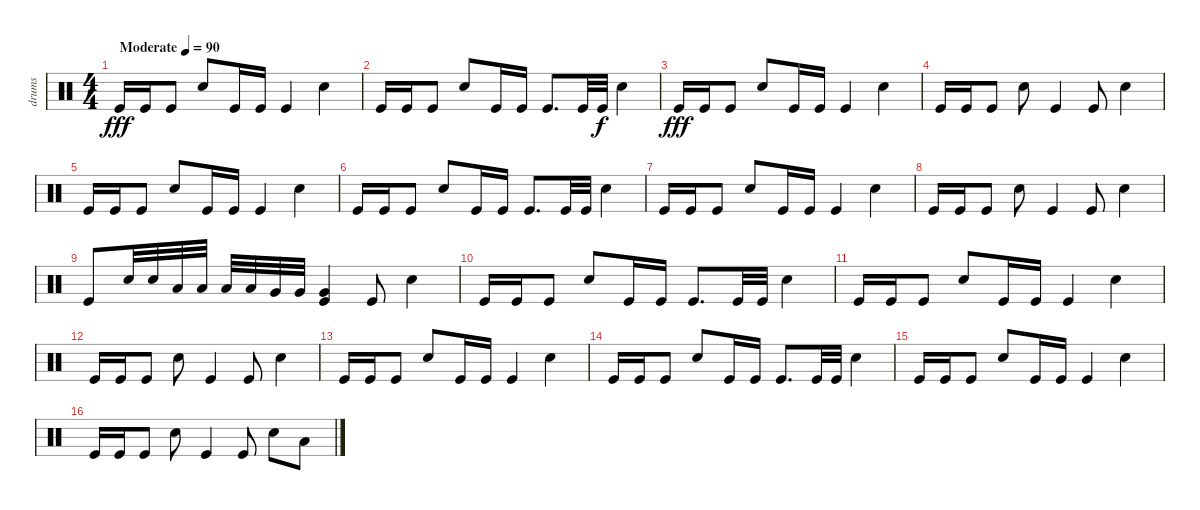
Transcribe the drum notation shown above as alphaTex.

\track ("drums" "drums") {instrument percussion}
\staff {score}
\articulation defaults
\ts (4 4)
\tempo (90 "Moderate")
\clef neutral
\ks c "Kick (hit)".16{dy fff} "Kick (hit)".16 "Kick (hit)".8 "Electric Snare (hit)".8 "Kick (hit)".16 "Kick (hit)".16 "Kick (hit)".4 "Electric Snare (hit)".4
|
"Kick (hit)".16 "Kick (hit)".16 "Kick (hit)".8 "Electric Snare (hit)".8 "Kick (hit)".16 "Kick (hit)".16 "Kick (hit)".8{d} "Kick (hit)".32 "Kick (hit)".32{dy f} "Electric Snare (hit)".4 |
"Kick (hit)".16{dy fff} "Kick (hit)".16 "Kick (hit)".8 "Electric Snare (hit)".8 "Kick (hit)".16 "Kick (hit)".16 "Kick (hit)".4 "Electric Snare (hit)".4 |
"Kick (hit)".16 "Kick (hit)".16 "Kick (hit)".8 "Electric Snare (hit)".8 "Kick (hit)".4 "Kick (hit)".8 "Electric Snare (hit)".4 |
"Kick (hit)".16 "Kick (hit)".16 "Kick (hit)".8 "Electric Snare (hit)".8 "Kick (hit)".16 "Kick (hit)".16 "Kick (hit)".4 "Electric Snare (hit)".4 |
"Kick (hit)".16 "Kick (hit)".16 "Kick (hit)".8 "Electric Snare (hit)".8 "Kick (hit)".16 "Kick (hit)".16 "Kick (hit)".8{d} "Kick (hit)".32 "Kick (hit)".32 "Electric Snare (hit)".4 |
"Kick (hit)".16 "Kick (hit)".16 "Kick (hit)".8 "Electric Snare (hit)".8 "Kick (hit)".16 "Kick (hit)".16 "Kick (hit)".4 "Electric Snare (hit)".4 |
"Kick (hit)".16 "Kick (hit)".16 "Kick (hit)".8 "Electric Snare (hit)".8 "Kick (hit)".4 "Kick (hit)".8 "Electric Snare (hit)".4 |
"Kick (hit)".8 "Electric Snare (hit)".32 "Electric Snare (hit)".32 "Low Tom (hit)".32 "Low Tom (hit)".32 "Low Tom (hit)".32 "Low Tom (hit)".32 "Very Low Tom (hit)".32 "Very Low Tom (hit)".32 ("Very Low Tom (hit)" "Kick (hit)").4 "Kick (hit)".8 "Electric Snare (hit)".4 |
"Kick (hit)".16 "Kick (hit)".16 "Kick (hit)".8 "Electric Snare (hit)".8 "Kick (hit)".16 "Kick (hit)".16 "Kick (hit)".8{d} "Kick (hit)".32 "Kick (hit)".32 "Electric Snare (hit)".4 |
"Kick (hit)".16 "Kick (hit)".16 "Kick (hit)".8 "Electric Snare (hit)".8 "Kick (hit)".16 "Kick (hit)".16 "Kick (hit)".4 "Electric Snare (hit)".4 |
"Kick (hit)".16 "Kick (hit)".16 "Kick (hit)".8 "Electric Snare (hit)".8 "Kick (hit)".4 "Kick (hit)".8 "Electric Snare (hit)".4 |
"Kick (hit)".16 "Kick (hit)".16 "Kick (hit)".8 "Electric Snare (hit)".8 "Kick (hit)".16 "Kick (hit)".16 "Kick (hit)".4 "Electric Snare (hit)".4 |
"Kick (hit)".16 "Kick (hit)".16 "Kick (hit)".8 "Electric Snare (hit)".8 "Kick (hit)".16 "Kick (hit)".16 "Kick (hit)".8{d} "Kick (hit)".32 "Kick (hit)".32 "Electric Snare (hit)".4 |
"Kick (hit)".16 "Kick (hit)".16 "Kick (hit)".8 "Electric Snare (hit)".8 "Kick (hit)".16 "Kick (hit)".16 "Kick (hit)".4 "Electric Snare (hit)".4 |
"Kick (hit)".16 "Kick (hit)".16 "Kick (hit)".8 "Electric Snare (hit)".8 "Kick (hit)".4 "Kick (hit)".8 "Electric Snare (hit)".8 "Low Floor Tom (hit)".8
